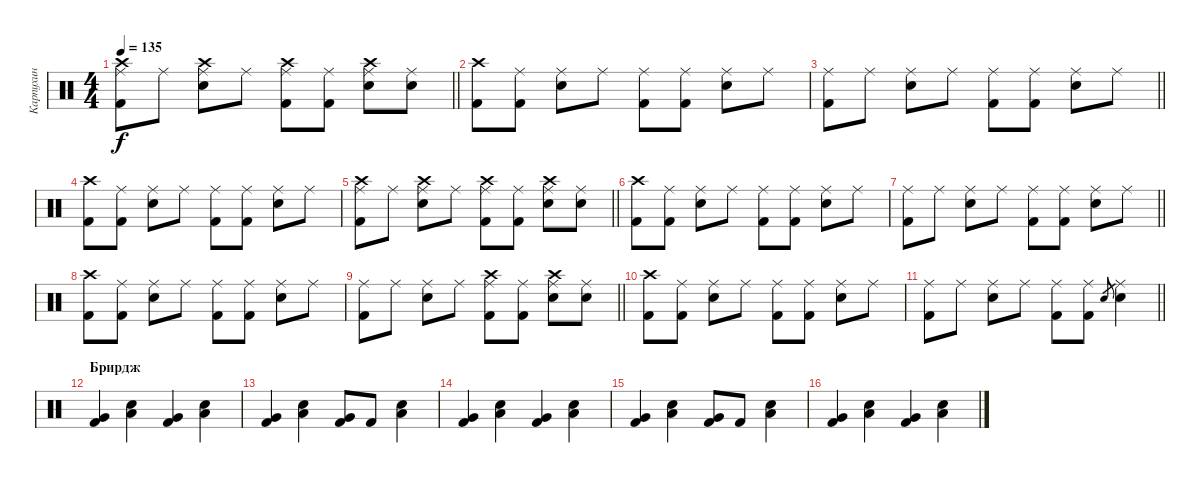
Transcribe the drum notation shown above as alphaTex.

\track ("Карпухин" "Карпухин") {instrument percussion}
\staff {score}
\articulation defaults
\ts (4 4)
\tempo 135
\clef neutral
\barLineRight lightlight
\ks c
("Ride (middle)" "Kick (hit) 2" "Crash high (hit)").8{dy f} "Ride (middle)".8 ("Ride (middle)" "Snare (hit) 2" "Crash high (hit)").8 "Ride (middle)".8 ("Ride (middle)" "Kick (hit) 2" "Crash high (hit)").8 ("Ride (middle)" "Kick (hit) 2").8 ("Ride (middle)" "Snare (hit) 2" "Crash high (hit)").8 ("Ride (middle)" "Snare (hit) 2").8 |
("Crash high (hit)" "Kick (hit) 2").8 ("Ride (middle)" "Kick (hit) 2").8 ("Ride (middle)" "Snare (hit) 2").8 "Ride (middle)".8 ("Ride (middle)" "Kick (hit) 2").8 ("Ride (middle)" "Kick (hit) 2").8 ("Ride (middle)" "Snare (hit) 2").8 "Ride (middle)".8 |
\barLineRight lightlight
("Ride (middle)" "Kick (hit) 2").8 "Ride (middle)".8 ("Ride (middle)" "Snare (hit) 2").8 "Ride (middle)".8 ("Ride (middle)" "Kick (hit) 2").8 ("Ride (middle)" "Kick (hit) 2").8 ("Ride (middle)" "Snare (hit) 2").8 "Ride (middle)".8 |
("Crash high (hit)" "Kick (hit) 2").8 ("Ride (middle)" "Kick (hit) 2").8 ("Ride (middle)" "Snare (hit) 2").8 "Ride (middle)".8 ("Ride (middle)" "Kick (hit) 2").8 ("Ride (middle)" "Kick (hit) 2").8 ("Ride (middle)" "Snare (hit) 2").8 "Ride (middle)".8 |
\barLineRight lightlight
("Ride (middle)" "Kick (hit) 2" "Crash high (hit)").8 "Ride (middle)".8 ("Ride (middle)" "Snare (hit) 2" "Crash high (hit)").8 "Ride (middle)".8 ("Ride (middle)" "Kick (hit) 2" "Crash high (hit)").8 ("Ride (middle)" "Kick (hit) 2").8 ("Ride (middle)" "Snare (hit) 2" "Crash high (hit)").8 ("Ride (middle)" "Snare (hit) 2").8 |
("Crash high (hit)" "Kick (hit) 2").8 ("Ride (middle)" "Kick (hit) 2").8 ("Ride (middle)" "Snare (hit) 2").8 "Ride (middle)".8 ("Ride (middle)" "Kick (hit) 2").8 ("Ride (middle)" "Kick (hit) 2").8 ("Ride (middle)" "Snare (hit) 2").8 "Ride (middle)".8 |
\barLineRight lightlight
("Ride (middle)" "Kick (hit) 2").8 "Ride (middle)".8 ("Ride (middle)" "Snare (hit) 2").8 "Ride (middle)".8 ("Ride (middle)" "Kick (hit) 2").8 ("Ride (middle)" "Kick (hit) 2").8 ("Ride (middle)" "Snare (hit) 2").8 "Ride (middle)".8 |
("Crash high (hit)" "Kick (hit) 2").8 ("Ride (middle)" "Kick (hit) 2").8 ("Ride (middle)" "Snare (hit) 2").8 "Ride (middle)".8 ("Ride (middle)" "Kick (hit) 2").8 ("Ride (middle)" "Kick (hit) 2").8 ("Ride (middle)" "Snare (hit) 2").8 "Ride (middle)".8 |
\barLineRight lightlight
("Ride (middle)" "Kick (hit) 2").8 "Ride (middle)".8 ("Ride (middle)" "Snare (hit) 2").8 "Ride (middle)".8 ("Ride (middle)" "Kick (hit) 2" "Crash high (hit)").8 ("Ride (middle)" "Kick (hit) 2").8 ("Ride (middle)" "Snare (hit) 2" "Crash high (hit)").8 ("Ride (middle)" "Snare (hit) 2").8 |
("Crash high (hit)" "Kick (hit) 2").8 ("Ride (middle)" "Kick (hit) 2").8 ("Ride (middle)" "Snare (hit) 2").8 "Ride (middle)".8 ("Ride (middle)" "Kick (hit) 2").8 ("Ride (middle)" "Kick (hit) 2").8 ("Ride (middle)" "Snare (hit) 2").8 "Ride (middle)".8 |
\barLineRight lightlight
("Ride (middle)" "Kick (hit) 2").8 "Ride (middle)".8 ("Ride (middle)" "Snare (hit) 2").8 "Ride (middle)".8 ("Ride (middle)" "Kick (hit) 2").8 ("Ride (middle)" "Kick (hit) 2").8 "Snare (hit) 2".8{gr} ("Ride (middle)" "Snare (hit) 2").4 |
\section ("" "Брирдж")
("Very Low Tom (hit)" "Kick (hit) 2").4 ("Snare (hit) 2" "Low Floor Tom (hit)").4 ("Very Low Tom (hit)" "Kick (hit) 2").4 ("Snare (hit) 2" "Low Floor Tom (hit)").4 |
("Very Low Tom (hit)" "Kick (hit) 2").4 ("Snare (hit) 2" "Low Floor Tom (hit)").4 ("Kick (hit) 2" "Very Low Tom (hit)").8 "Kick (hit) 2".8 ("Snare (hit) 2" "Low Floor Tom (hit)").4 |
("Very Low Tom (hit)" "Kick (hit) 2").4 ("Snare (hit) 2" "Low Floor Tom (hit)").4 ("Very Low Tom (hit)" "Kick (hit) 2").4 ("Snare (hit) 2" "Low Floor Tom (hit)").4 |
("Very Low Tom (hit)" "Kick (hit) 2").4 ("Snare (hit) 2" "Low Floor Tom (hit)").4 ("Kick (hit) 2" "Very Low Tom (hit)").8 "Kick (hit) 2".8 ("Snare (hit) 2" "Low Floor Tom (hit)").4 |
("Very Low Tom (hit)" "Kick (hit) 2").4 ("Snare (hit) 2" "Low Floor Tom (hit)").4 ("Very Low Tom (hit)" "Kick (hit) 2").4 ("Snare (hit) 2" "Low Floor Tom (hit)").4
